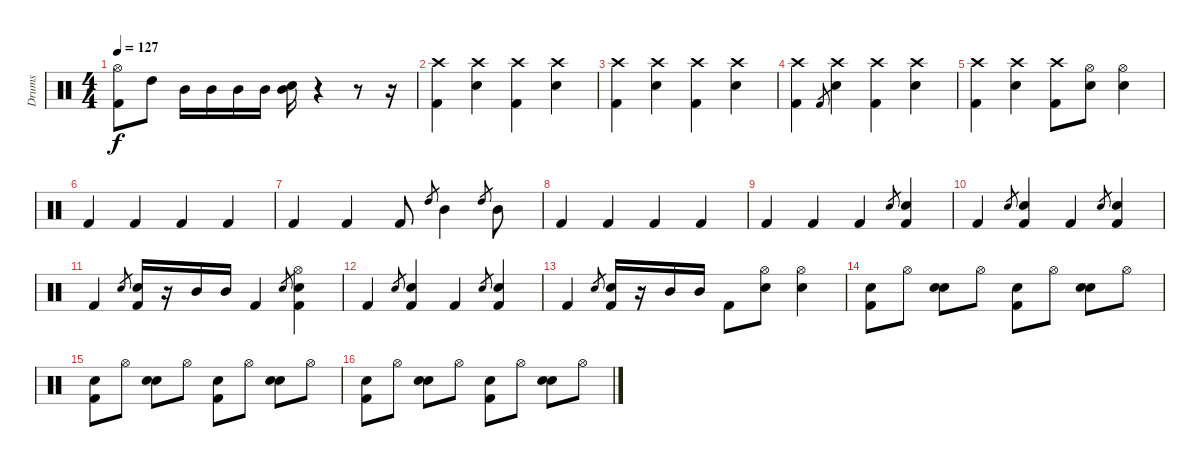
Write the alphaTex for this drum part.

\track ("Drums" "Drums") {instrument percussion}
\staff {score}
\articulation defaults
\ts (4 4)
\tempo 127
\clef neutral
\ks c
("Hi-Hat (open)" "Kick (hit) 2").8{dy f} "High Tom (hit)".8 "Mid Tom (hit)".16 "Mid Tom (hit)".16 "Mid Tom (hit)".16 "Mid Tom (hit)".16 ("Snare (hit) 2" "Mid Tom (hit)").16 r.4 r.8 r.16 |
("Crash high (hit)" "Kick (hit) 2").4 ("Crash high (hit)" "Snare (hit) 2").4 ("Crash high (hit)" "Kick (hit) 2").4 ("Crash high (hit)" "Snare (hit) 2").4 |
("Crash high (hit)" "Kick (hit) 2").4 ("Crash high (hit)" "Snare (hit) 2").4 ("Crash high (hit)" "Kick (hit) 2").4 ("Crash high (hit)" "Snare (hit) 2").4 |
("Crash high (hit)" "Kick (hit) 2").4 "Kick (hit) 2".8{gr} ("Crash high (hit)" "Snare (hit) 2").4 ("Crash high (hit)" "Kick (hit) 2").4 ("Crash high (hit)" "Snare (hit) 2").4 |
("Crash high (hit)" "Kick (hit) 2").4 ("Crash high (hit)" "Snare (hit) 2").4 ("Crash high (hit)" "Kick (hit) 2").8 ("Hi-Hat (open)" "Snare (hit) 2").8 ("Hi-Hat (open)" "Snare (hit) 2").4 |
"Kick (hit) 2".4 "Kick (hit) 2".4 "Kick (hit) 2".4 "Kick (hit) 2".4 |
"Kick (hit) 2".4 "Kick (hit) 2".4 "Kick (hit) 2".8 "High Tom (hit)".8{gr} "Mid Tom (hit)".4 "High Tom (hit)".8{gr} "Mid Tom (hit)".8 |
"Kick (hit) 2".4 "Kick (hit) 2".4 "Kick (hit) 2".4 "Kick (hit) 2".4 |
"Kick (hit) 2".4 "Kick (hit) 2".4 "Kick (hit) 2".4 "Snare (hit) 2".8{gr} ("Snare (hit) 2" "Kick (hit) 2").4 |
"Kick (hit) 2".4 "Snare (hit) 2".8{gr} ("Kick (hit) 2" "Snare (hit) 2").4 "Kick (hit) 2".4 "Snare (hit) 2".8{gr} ("Kick (hit) 2" "Snare (hit) 2").4 |
"Kick (hit) 2".4 "Snare (hit) 2".8{gr} ("Kick (hit) 2" "Snare (hit) 2").16 r.16 "Mid Tom (hit)".16 "Mid Tom (hit)".16 "Kick (hit) 2".4 "Snare (hit) 2".8{gr} ("Kick (hit) 2" "Hi-Hat (open)" "Snare (hit) 2").4 |
"Kick (hit) 2".4 "Snare (hit) 2".8{gr} ("Kick (hit) 2" "Snare (hit) 2").4 "Kick (hit) 2".4 "Snare (hit) 2".8{gr} ("Kick (hit) 2" "Snare (hit) 2").4 |
"Kick (hit) 2".4 "Snare (hit) 2".8{gr} ("Kick (hit) 2" "Snare (hit) 2").16 r.16 "Mid Tom (hit)".16 "Mid Tom (hit)".16 "Kick (hit) 2".8 ("Hi-Hat (open)" "Snare (hit) 2").8 ("Hi-Hat (open)" "Snare (hit) 2").4 |
("Snare (hit)" "Kick (hit) 2").8 "Hi-Hat (open)".8 ("Snare (hit)" "Snare (hit) 2").8 "Hi-Hat (open)".8 ("Snare (hit)" "Kick (hit) 2").8 "Hi-Hat (open)".8 ("Snare (hit)" "Snare (hit) 2").8 "Hi-Hat (open)".8 |
("Snare (hit)" "Kick (hit) 2").8 "Hi-Hat (open)".8 ("Snare (hit)" "Snare (hit) 2").8 "Hi-Hat (open)".8 ("Snare (hit)" "Kick (hit) 2").8 "Hi-Hat (open)".8 ("Snare (hit)" "Snare (hit) 2").8 "Hi-Hat (open)".8 |
("Snare (hit)" "Kick (hit) 2").8 "Hi-Hat (open)".8 ("Snare (hit)" "Snare (hit) 2").8 "Hi-Hat (open)".8 ("Snare (hit)" "Kick (hit) 2").8 "Hi-Hat (open)".8 ("Snare (hit)" "Snare (hit) 2").8 "Hi-Hat (open)".8
